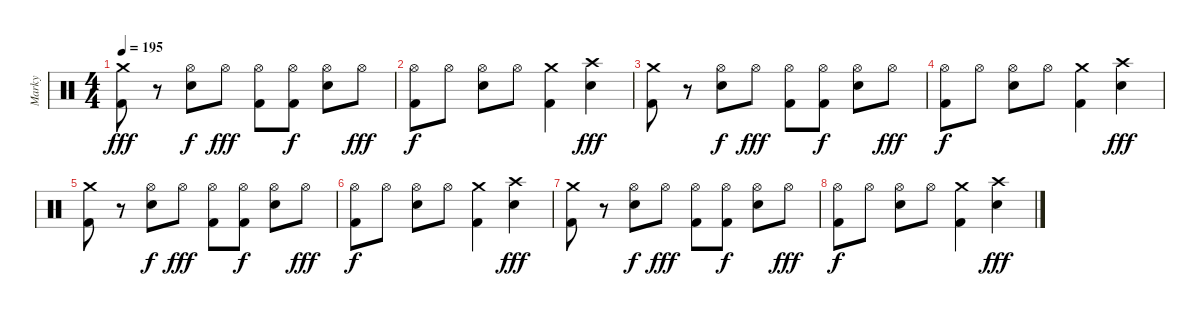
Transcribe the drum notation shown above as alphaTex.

\track ("Marky" "Marky") {instrument percussion}
\staff {score}
\articulation defaults
\ts (4 4)
\tempo 195
\clef neutral
\ks c
("Crash medium (hit)" "Kick (hit) 2").8{dy fff} r.8 ("Hi-Hat (open)" "Electric Snare (hit)").8{dy f} "Hi-Hat (open)".8{dy fff} ("Hi-Hat (open)" "Kick (hit) 2").8 ("Hi-Hat (open)" "Kick (hit) 2").8{dy f} ("Hi-Hat (open)" "Electric Snare (hit)").8 "Hi-Hat (open)".8{dy fff} |
("Hi-Hat (open)" "Kick (hit) 2").8{dy f} "Hi-Hat (open)".8 ("Hi-Hat (open)" "Electric Snare (hit)").8 "Hi-Hat (open)".8 ("Crash medium (hit)" "Kick (hit) 2").4 ("Crash high (hit)" "Electric Snare (hit)").4{dy fff} |
("Crash medium (hit)" "Kick (hit) 2").8 r.8 ("Hi-Hat (open)" "Electric Snare (hit)").8{dy f} "Hi-Hat (open)".8{dy fff} ("Hi-Hat (open)" "Kick (hit) 2").8 ("Hi-Hat (open)" "Kick (hit) 2").8{dy f} ("Hi-Hat (open)" "Electric Snare (hit)").8 "Hi-Hat (open)".8{dy fff} |
("Hi-Hat (open)" "Kick (hit) 2").8{dy f} "Hi-Hat (open)".8 ("Hi-Hat (open)" "Electric Snare (hit)").8 "Hi-Hat (open)".8 ("Crash medium (hit)" "Kick (hit) 2").4 ("Crash high (hit)" "Electric Snare (hit)").4{dy fff} |
("Crash medium (hit)" "Kick (hit) 2").8 r.8 ("Hi-Hat (open)" "Electric Snare (hit)").8{dy f} "Hi-Hat (open)".8{dy fff} ("Hi-Hat (open)" "Kick (hit) 2").8 ("Hi-Hat (open)" "Kick (hit) 2").8{dy f} ("Hi-Hat (open)" "Electric Snare (hit)").8 "Hi-Hat (open)".8{dy fff} |
("Hi-Hat (open)" "Kick (hit) 2").8{dy f} "Hi-Hat (open)".8 ("Hi-Hat (open)" "Electric Snare (hit)").8 "Hi-Hat (open)".8 ("Crash medium (hit)" "Kick (hit) 2").4 ("Crash high (hit)" "Electric Snare (hit)").4{dy fff} |
("Crash medium (hit)" "Kick (hit) 2").8 r.8 ("Hi-Hat (open)" "Electric Snare (hit)").8{dy f} "Hi-Hat (open)".8{dy fff} ("Hi-Hat (open)" "Kick (hit) 2").8 ("Hi-Hat (open)" "Kick (hit) 2").8{dy f} ("Hi-Hat (open)" "Electric Snare (hit)").8 "Hi-Hat (open)".8{dy fff} |
("Hi-Hat (open)" "Kick (hit) 2").8{dy f} "Hi-Hat (open)".8 ("Hi-Hat (open)" "Electric Snare (hit)").8 "Hi-Hat (open)".8 ("Crash medium (hit)" "Kick (hit) 2").4 ("Crash high (hit)" "Electric Snare (hit)").4{dy fff}
